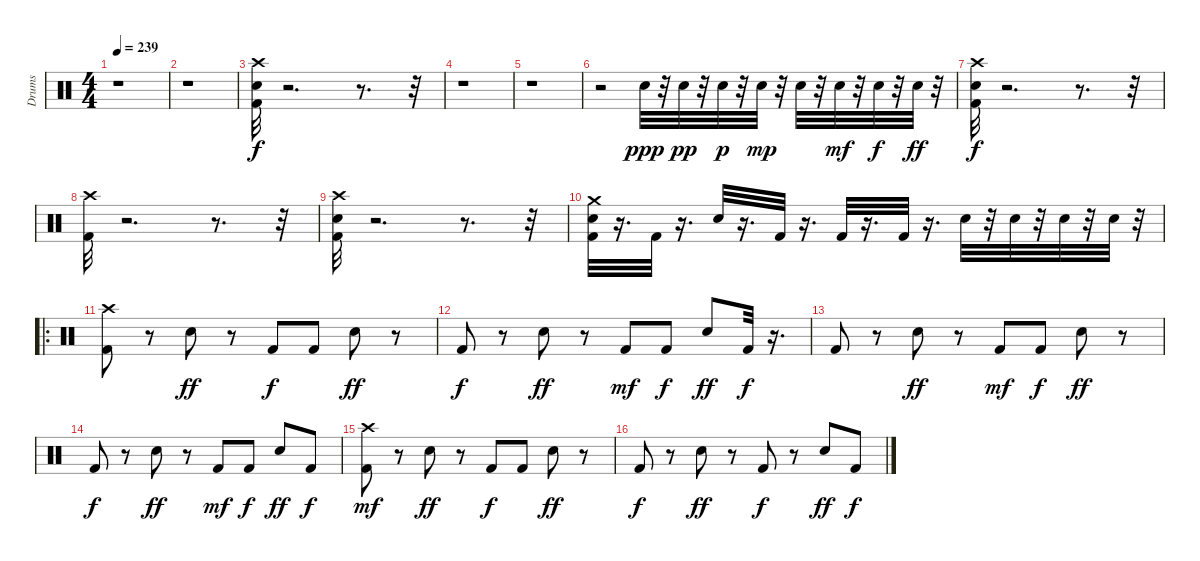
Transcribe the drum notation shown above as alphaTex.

\track ("Drums" "Drums") {instrument percussion}
\staff {score}
\articulation defaults
\ts (4 4)
\tempo 239
\clef neutral
\ks c
r.1{dy f} |
r.1 |
("Snare (hit) 2" "Kick (hit) 2" "Crash high (hit)").32 r.2{d} r.8{d} r.32 |
r.1 |
r.1 |
r.2 "Snare (hit) 2".32{dy ppp} r.32 "Snare (hit) 2".32{dy pp} r.32 "Snare (hit) 2".32{dy p} r.32 "Snare (hit) 2".32{dy mp} r.32 "Snare (hit) 2".32 r.32 "Snare (hit) 2".32{dy mf} r.32 "Snare (hit) 2".32{dy f} r.32 "Snare (hit) 2".32{dy ff} r.32 |
("Snare (hit) 2" "Kick (hit) 2" "Crash high (hit)").32{dy f} r.2{d} r.8{d} r.32 |
("Kick (hit) 2" "Crash high (hit)").32 r.2{d} r.8{d} r.32 |
("Crash high (hit)" "Snare (hit) 2" "Kick (hit) 2").32 r.2{d} r.8{d} r.32 |
("Kick (hit) 2" "Snare (hit) 2" "Crash medium (hit)").32 r.16{d} "Kick (hit) 2".32 r.16{d} "Snare (hit) 2".32 r.16{d} "Kick (hit) 2".32 r.16{d} "Kick (hit) 2".32 r.16{d} "Kick (hit) 2".32 r.16{d} "Snare (hit) 2".32 r.32 "Snare (hit) 2".32 r.32 "Snare (hit) 2".32 r.32 "Snare (hit) 2".32 r.32 |
\ro
("Kick (hit) 2" "Crash high (hit)").8 r.8 "Snare (hit) 2".8{dy ff} r.8 "Kick (hit) 2".8{dy f} "Kick (hit) 2".8 "Snare (hit) 2".8{dy ff} r.8 |
"Kick (hit) 2".8{dy f} r.8 "Snare (hit) 2".8{dy ff} r.8 "Kick (hit) 2".8{dy mf} "Kick (hit) 2".8{dy f} "Snare (hit) 2".8{dy ff} "Kick (hit) 2".32{dy f} r.16{d} |
"Kick (hit) 2".8 r.8 "Snare (hit) 2".8{dy ff} r.8 "Kick (hit) 2".8{dy mf} "Kick (hit) 2".8{dy f} "Snare (hit) 2".8{dy ff} r.8 |
"Kick (hit) 2".8{dy f} r.8 "Snare (hit) 2".8{dy ff} r.8 "Kick (hit) 2".8{dy mf} "Kick (hit) 2".8{dy f} "Snare (hit) 2".8{dy ff} "Kick (hit) 2".8{dy f} |
("Kick (hit) 2" "Crash high (hit)").8{dy mf} r.8 "Snare (hit) 2".8{dy ff} r.8 "Kick (hit) 2".8{dy f} "Kick (hit) 2".8 "Snare (hit) 2".8{dy ff} r.8 |
"Kick (hit) 2".8{dy f} r.8 "Snare (hit) 2".8{dy ff} r.8 "Kick (hit) 2".8{dy f} r.8 "Snare (hit) 2".8{dy ff} "Kick (hit) 2".8{dy f}
